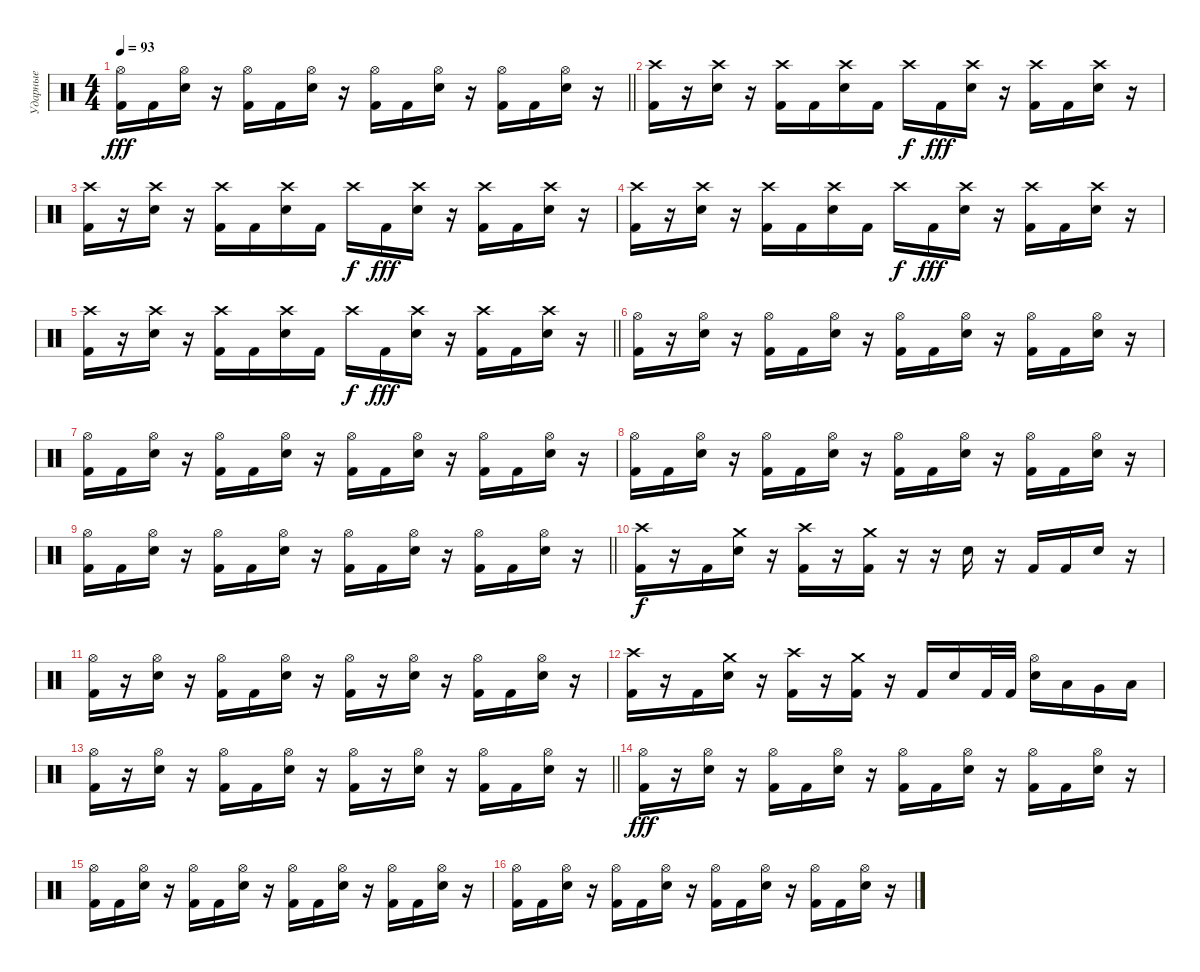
\track ("Ударные" "Ударные") {instrument percussion}
\staff {score}
\articulation defaults
\ts (4 4)
\tempo 93
\clef neutral
\barLineRight lightlight
\ks c
("Hi-Hat (open)" "Kick (hit) 2").16{dy fff} "Kick (hit) 2".16 ("Hi-Hat (open)" "Electric Snare (hit)").16 r.16 ("Hi-Hat (open)" "Kick (hit) 2").16 "Kick (hit) 2".16 ("Hi-Hat (open)" "Electric Snare (hit)").16 r.16 ("Hi-Hat (open)" "Kick (hit) 2").16 "Kick (hit) 2".16 ("Hi-Hat (open)" "Electric Snare (hit)").16 r.16 ("Hi-Hat (open)" "Kick (hit) 2").16 "Kick (hit) 2".16 ("Hi-Hat (open)" "Electric Snare (hit)").16 r.16 |
\section ("" "")
("Crash high (hit)" "Kick (hit) 2").16 r.16 ("Crash high (hit)" "Electric Snare (hit)").16 r.16 ("Crash high (hit)" "Kick (hit) 2").16 "Kick (hit) 2".16 ("Crash high (hit)" "Electric Snare (hit)").16 "Kick (hit) 2".16 "Crash high (hit)".16{dy f} "Kick (hit) 2".16{dy fff} ("Crash high (hit)" "Electric Snare (hit)").16 r.16 ("Crash high (hit)" "Kick (hit) 2").16 "Kick (hit) 2".16 ("Crash high (hit)" "Electric Snare (hit)").16 r.16 |
("Crash high (hit)" "Kick (hit) 2").16 r.16 ("Crash high (hit)" "Electric Snare (hit)").16 r.16 ("Crash high (hit)" "Kick (hit) 2").16 "Kick (hit) 2".16 ("Crash high (hit)" "Electric Snare (hit)").16 "Kick (hit) 2".16 "Crash high (hit)".16{dy f} "Kick (hit) 2".16{dy fff} ("Crash high (hit)" "Electric Snare (hit)").16 r.16 ("Crash high (hit)" "Kick (hit) 2").16 "Kick (hit) 2".16 ("Crash high (hit)" "Electric Snare (hit)").16 r.16 |
("Crash high (hit)" "Kick (hit) 2").16 r.16 ("Crash high (hit)" "Electric Snare (hit)").16 r.16 ("Crash high (hit)" "Kick (hit) 2").16 "Kick (hit) 2".16 ("Crash high (hit)" "Electric Snare (hit)").16 "Kick (hit) 2".16 "Crash high (hit)".16{dy f} "Kick (hit) 2".16{dy fff} ("Crash high (hit)" "Electric Snare (hit)").16 r.16 ("Crash high (hit)" "Kick (hit) 2").16 "Kick (hit) 2".16 ("Crash high (hit)" "Electric Snare (hit)").16 r.16 |
\barLineRight lightlight
("Crash high (hit)" "Kick (hit) 2").16 r.16 ("Crash high (hit)" "Electric Snare (hit)").16 r.16 ("Crash high (hit)" "Kick (hit) 2").16 "Kick (hit) 2".16 ("Crash high (hit)" "Electric Snare (hit)").16 "Kick (hit) 2".16 "Crash high (hit)".16{dy f} "Kick (hit) 2".16{dy fff} ("Crash high (hit)" "Electric Snare (hit)").16 r.16 ("Crash high (hit)" "Kick (hit) 2").16 "Kick (hit) 2".16 ("Crash high (hit)" "Electric Snare (hit)").16 r.16 |
\section ("" "")
("Hi-Hat (open)" "Kick (hit) 2").16 r.16 ("Hi-Hat (open)" "Electric Snare (hit)").16 r.16 ("Hi-Hat (open)" "Kick (hit) 2").16 "Kick (hit) 2".16 ("Hi-Hat (open)" "Electric Snare (hit)").16 r.16 ("Hi-Hat (open)" "Kick (hit) 2").16 "Kick (hit) 2".16 ("Hi-Hat (open)" "Electric Snare (hit)").16 r.16 ("Hi-Hat (open)" "Kick (hit) 2").16 "Kick (hit) 2".16 ("Hi-Hat (open)" "Electric Snare (hit)").16 r.16 |
("Hi-Hat (open)" "Kick (hit) 2").16 "Kick (hit) 2".16 ("Hi-Hat (open)" "Electric Snare (hit)").16 r.16 ("Hi-Hat (open)" "Kick (hit) 2").16 "Kick (hit) 2".16 ("Hi-Hat (open)" "Electric Snare (hit)").16 r.16 ("Hi-Hat (open)" "Kick (hit) 2").16 "Kick (hit) 2".16 ("Hi-Hat (open)" "Electric Snare (hit)").16 r.16 ("Hi-Hat (open)" "Kick (hit) 2").16 "Kick (hit) 2".16 ("Hi-Hat (open)" "Electric Snare (hit)").16 r.16 |
("Hi-Hat (open)" "Kick (hit) 2").16 "Kick (hit) 2".16 ("Hi-Hat (open)" "Electric Snare (hit)").16 r.16 ("Hi-Hat (open)" "Kick (hit) 2").16 "Kick (hit) 2".16 ("Hi-Hat (open)" "Electric Snare (hit)").16 r.16 ("Hi-Hat (open)" "Kick (hit) 2").16 "Kick (hit) 2".16 ("Hi-Hat (open)" "Electric Snare (hit)").16 r.16 ("Hi-Hat (open)" "Kick (hit) 2").16 "Kick (hit) 2".16 ("Hi-Hat (open)" "Electric Snare (hit)").16 r.16 |
\barLineRight lightlight
("Hi-Hat (open)" "Kick (hit) 2").16 "Kick (hit) 2".16 ("Hi-Hat (open)" "Electric Snare (hit)").16 r.16 ("Hi-Hat (open)" "Kick (hit) 2").16 "Kick (hit) 2".16 ("Hi-Hat (open)" "Electric Snare (hit)").16 r.16 ("Hi-Hat (open)" "Kick (hit) 2").16 "Kick (hit) 2".16 ("Hi-Hat (open)" "Electric Snare (hit)").16 r.16 ("Hi-Hat (open)" "Kick (hit) 2").16 "Kick (hit) 2".16 ("Hi-Hat (open)" "Electric Snare (hit)").16 r.16 |
\section ("" "")
("Crash high (hit)" "Kick (hit) 2").16{dy f} r.16 "Kick (hit) 2".16 ("Crash medium (hit)" "Electric Snare (hit)").16 r.16 ("Crash high (hit)" "Kick (hit) 2").16 r.16 ("Crash medium (hit)" "Kick (hit) 2").16 r.16 r.16 "Electric Snare (hit)".16 r.16 "Kick (hit) 2".16 "Kick (hit) 2".16 "Electric Snare (hit)".16 r.16 |
("Hi-Hat (open)" "Kick (hit) 2").16 r.16 ("Hi-Hat (open)" "Electric Snare (hit)").16 r.16 ("Hi-Hat (open)" "Kick (hit) 2").16 "Kick (hit) 2".16 ("Hi-Hat (open)" "Electric Snare (hit)").16 r.16 ("Hi-Hat (open)" "Kick (hit) 2").16 r.16 ("Hi-Hat (open)" "Electric Snare (hit)").16 r.16 ("Hi-Hat (open)" "Kick (hit) 2").16 "Kick (hit) 2".16 ("Hi-Hat (open)" "Electric Snare (hit)").16 r.16 |
("Crash high (hit)" "Kick (hit) 2").16 r.16 "Kick (hit) 2".16 ("Crash medium (hit)" "Electric Snare (hit)").16 r.16 ("Crash high (hit)" "Kick (hit) 2").16 r.16 ("Crash medium (hit)" "Kick (hit) 2").16 r.16 "Kick (hit) 2".16 "Electric Snare (hit)".16 "Kick (hit) 2".32 "Kick (hit) 2".32 ("Hi-Hat (open)" "Electric Snare (hit)").16 "Low Tom (hit)".16 "Very Low Tom (hit)".16 "Low Floor Tom (hit)".16 |
\barLineRight lightlight
("Hi-Hat (open)" "Kick (hit) 2").16 r.16 ("Hi-Hat (open)" "Electric Snare (hit)").16 r.16 ("Hi-Hat (open)" "Kick (hit) 2").16 "Kick (hit) 2".16 ("Hi-Hat (open)" "Electric Snare (hit)").16 r.16 ("Hi-Hat (open)" "Kick (hit) 2").16 r.16 ("Hi-Hat (open)" "Electric Snare (hit)").16 r.16 ("Hi-Hat (open)" "Kick (hit) 2").16 "Kick (hit) 2".16 ("Hi-Hat (open)" "Electric Snare (hit)").16 r.16 |
\section ("" "")
("Hi-Hat (open)" "Kick (hit) 2").16{dy fff} r.16 ("Hi-Hat (open)" "Electric Snare (hit)").16 r.16 ("Hi-Hat (open)" "Kick (hit) 2").16 "Kick (hit) 2".16 ("Hi-Hat (open)" "Electric Snare (hit)").16 r.16 ("Hi-Hat (open)" "Kick (hit) 2").16 "Kick (hit) 2".16 ("Hi-Hat (open)" "Electric Snare (hit)").16 r.16 ("Hi-Hat (open)" "Kick (hit) 2").16 "Kick (hit) 2".16 ("Hi-Hat (open)" "Electric Snare (hit)").16 r.16 |
("Hi-Hat (open)" "Kick (hit) 2").16 "Kick (hit) 2".16 ("Hi-Hat (open)" "Electric Snare (hit)").16 r.16 ("Hi-Hat (open)" "Kick (hit) 2").16 "Kick (hit) 2".16 ("Hi-Hat (open)" "Electric Snare (hit)").16 r.16 ("Hi-Hat (open)" "Kick (hit) 2").16 "Kick (hit) 2".16 ("Hi-Hat (open)" "Electric Snare (hit)").16 r.16 ("Hi-Hat (open)" "Kick (hit) 2").16 "Kick (hit) 2".16 ("Hi-Hat (open)" "Electric Snare (hit)").16 r.16 |
("Hi-Hat (open)" "Kick (hit) 2").16 "Kick (hit) 2".16 ("Hi-Hat (open)" "Electric Snare (hit)").16 r.16 ("Hi-Hat (open)" "Kick (hit) 2").16 "Kick (hit) 2".16 ("Hi-Hat (open)" "Electric Snare (hit)").16 r.16 ("Hi-Hat (open)" "Kick (hit) 2").16 "Kick (hit) 2".16 ("Hi-Hat (open)" "Electric Snare (hit)").16 r.16 ("Hi-Hat (open)" "Kick (hit) 2").16 "Kick (hit) 2".16 ("Hi-Hat (open)" "Electric Snare (hit)").16 r.16
